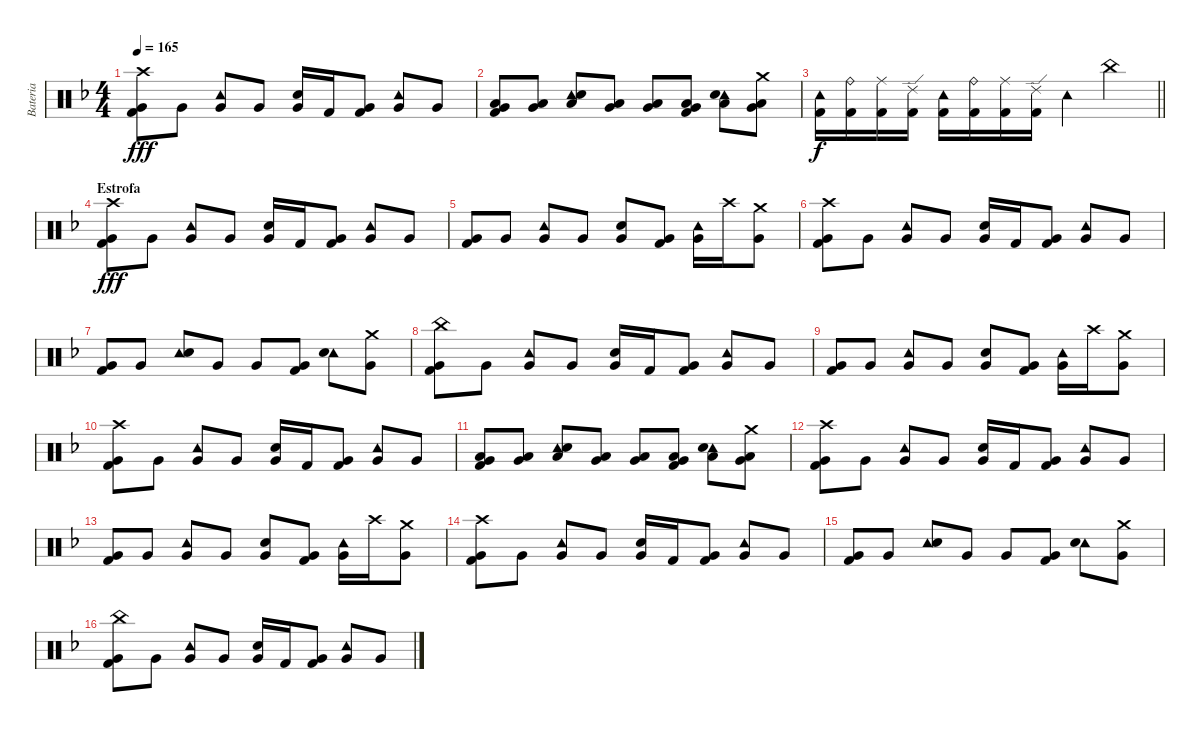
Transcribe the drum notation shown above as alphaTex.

\track ("Bateria" "Bateria") {instrument percussion}
\staff {score}
\articulation defaults
\ts (4 4)
\tempo 165
\clef neutral
\ks f
("Crash high (hit)" "Very Low Tom (hit)" "Kick (hit) 2").8{dy fff} "Very Low Tom (hit)".8 ("Tambourine (hit)" "Very Low Tom (hit)").8 "Very Low Tom (hit)".8 ("Snare (hit) 2" "Very Low Tom (hit)").16 "Kick (hit) 2".16 ("Very Low Tom (hit)" "Kick (hit) 2").8 ("Tambourine (hit)" "Very Low Tom (hit)").8 "Very Low Tom (hit)".8 |
("Low Floor Tom (hit)" "Very Low Tom (hit)" "Kick (hit) 2").8 ("Low Floor Tom (hit)" "Very Low Tom (hit)").8 ("Low Floor Tom (hit)" "Tambourine (hit)" "Snare (hit) 2").8 ("Low Floor Tom (hit)" "Very Low Tom (hit)").8 ("Low Floor Tom (hit)" "Very Low Tom (hit)").8 ("Low Floor Tom (hit)" "Very Low Tom (hit)" "Kick (hit) 2").8 ("Low Floor Tom (hit)" "Tambourine (hit)" "Snare (hit) 2").8 ("Crash medium (hit)" "Low Floor Tom (hit)" "Very Low Tom (hit)").8 |
\barLineRight lightlight
("Tambourine (hit)" "Kick (hit) 2").16{dy f} ("Ride (bell)" "Kick (hit) 2").16 ("Ride (middle)" "Kick (hit) 2").16 ("Ride (edge) 2" "Kick (hit) 2").16 ("Tambourine (hit)" "Kick (hit) 2").16 ("Ride (bell)" "Kick (hit) 2").16 ("Ride (middle)" "Kick (hit) 2").16 ("Ride (edge) 2" "Kick (hit) 2").16 "Tambourine (hit)".4 "China (hit)".4 |
\section ("" "Estrofa")
("Crash high (hit)" "Very Low Tom (hit)" "Kick (hit) 2").8{dy fff} "Very Low Tom (hit)".8 ("Tambourine (hit)" "Very Low Tom (hit)").8 "Very Low Tom (hit)".8 ("Snare (hit) 2" "Very Low Tom (hit)").16 "Kick (hit) 2".16 ("Very Low Tom (hit)" "Kick (hit) 2").8 ("Tambourine (hit)" "Very Low Tom (hit)").8 "Very Low Tom (hit)".8 |
("Very Low Tom (hit)" "Kick (hit) 2").8 "Very Low Tom (hit)".8 ("Tambourine (hit)" "Very Low Tom (hit)").8 "Very Low Tom (hit)".8 ("Snare (hit) 2" "Very Low Tom (hit)").8 ("Very Low Tom (hit)" "Kick (hit) 2").8 ("Tambourine (hit)" "Very Low Tom (hit)").16 "Crash high (hit)".16 ("Crash medium (hit)" "Very Low Tom (hit)").8 |
("Crash high (hit)" "Very Low Tom (hit)" "Kick (hit) 2").8 "Very Low Tom (hit)".8 ("Tambourine (hit)" "Very Low Tom (hit)").8 "Very Low Tom (hit)".8 ("Snare (hit) 2" "Very Low Tom (hit)").16 "Kick (hit) 2".16 ("Very Low Tom (hit)" "Kick (hit) 2").8 ("Tambourine (hit)" "Very Low Tom (hit)").8 "Very Low Tom (hit)".8 |
("Very Low Tom (hit)" "Kick (hit) 2").8 "Very Low Tom (hit)".8 ("Tambourine (hit)" "Snare (hit) 2").8 "Very Low Tom (hit)".8 "Very Low Tom (hit)".8 ("Very Low Tom (hit)" "Kick (hit) 2").8 ("Tambourine (hit)" "Snare (hit) 2").8 ("Crash medium (hit)" "Very Low Tom (hit)").8 |
("China (hit)" "Very Low Tom (hit)" "Kick (hit) 2").8 "Very Low Tom (hit)".8 ("Tambourine (hit)" "Very Low Tom (hit)").8 "Very Low Tom (hit)".8 ("Snare (hit) 2" "Very Low Tom (hit)").16 "Kick (hit) 2".16 ("Very Low Tom (hit)" "Kick (hit) 2").8 ("Tambourine (hit)" "Very Low Tom (hit)").8 "Very Low Tom (hit)".8 |
("Very Low Tom (hit)" "Kick (hit) 2").8 "Very Low Tom (hit)".8 ("Tambourine (hit)" "Very Low Tom (hit)").8 "Very Low Tom (hit)".8 ("Snare (hit) 2" "Very Low Tom (hit)").8 ("Very Low Tom (hit)" "Kick (hit) 2").8 ("Tambourine (hit)" "Very Low Tom (hit)").16 "Crash high (hit)".16 ("Crash medium (hit)" "Very Low Tom (hit)").8 |
("Crash high (hit)" "Very Low Tom (hit)" "Kick (hit) 2").8 "Very Low Tom (hit)".8 ("Tambourine (hit)" "Very Low Tom (hit)").8 "Very Low Tom (hit)".8 ("Snare (hit) 2" "Very Low Tom (hit)").16 "Kick (hit) 2".16 ("Very Low Tom (hit)" "Kick (hit) 2").8 ("Tambourine (hit)" "Very Low Tom (hit)").8 "Very Low Tom (hit)".8 |
("Low Floor Tom (hit)" "Very Low Tom (hit)" "Kick (hit) 2").8 ("Low Floor Tom (hit)" "Very Low Tom (hit)").8 ("Low Floor Tom (hit)" "Tambourine (hit)" "Snare (hit) 2").8 ("Low Floor Tom (hit)" "Very Low Tom (hit)").8 ("Low Floor Tom (hit)" "Very Low Tom (hit)").8 ("Low Floor Tom (hit)" "Very Low Tom (hit)" "Kick (hit) 2").8 ("Low Floor Tom (hit)" "Tambourine (hit)" "Snare (hit) 2").8 ("Crash medium (hit)" "Low Floor Tom (hit)" "Very Low Tom (hit)").8 |
("Crash high (hit)" "Very Low Tom (hit)" "Kick (hit) 2").8 "Very Low Tom (hit)".8 ("Tambourine (hit)" "Very Low Tom (hit)").8 "Very Low Tom (hit)".8 ("Snare (hit) 2" "Very Low Tom (hit)").16 "Kick (hit) 2".16 ("Very Low Tom (hit)" "Kick (hit) 2").8 ("Tambourine (hit)" "Very Low Tom (hit)").8 "Very Low Tom (hit)".8 |
("Very Low Tom (hit)" "Kick (hit) 2").8 "Very Low Tom (hit)".8 ("Tambourine (hit)" "Very Low Tom (hit)").8 "Very Low Tom (hit)".8 ("Snare (hit) 2" "Very Low Tom (hit)").8 ("Very Low Tom (hit)" "Kick (hit) 2").8 ("Tambourine (hit)" "Very Low Tom (hit)").16 "Crash high (hit)".16 ("Crash medium (hit)" "Very Low Tom (hit)").8 |
("Crash high (hit)" "Very Low Tom (hit)" "Kick (hit) 2").8 "Very Low Tom (hit)".8 ("Tambourine (hit)" "Very Low Tom (hit)").8 "Very Low Tom (hit)".8 ("Snare (hit) 2" "Very Low Tom (hit)").16 "Kick (hit) 2".16 ("Very Low Tom (hit)" "Kick (hit) 2").8 ("Tambourine (hit)" "Very Low Tom (hit)").8 "Very Low Tom (hit)".8 |
("Very Low Tom (hit)" "Kick (hit) 2").8 "Very Low Tom (hit)".8 ("Tambourine (hit)" "Snare (hit) 2").8 "Very Low Tom (hit)".8 "Very Low Tom (hit)".8 ("Very Low Tom (hit)" "Kick (hit) 2").8 ("Tambourine (hit)" "Snare (hit) 2").8 ("Crash medium (hit)" "Very Low Tom (hit)").8 |
("China (hit)" "Very Low Tom (hit)" "Kick (hit) 2").8 "Very Low Tom (hit)".8 ("Tambourine (hit)" "Very Low Tom (hit)").8 "Very Low Tom (hit)".8 ("Snare (hit) 2" "Very Low Tom (hit)").16 "Kick (hit) 2".16 ("Very Low Tom (hit)" "Kick (hit) 2").8 ("Tambourine (hit)" "Very Low Tom (hit)").8 "Very Low Tom (hit)".8
